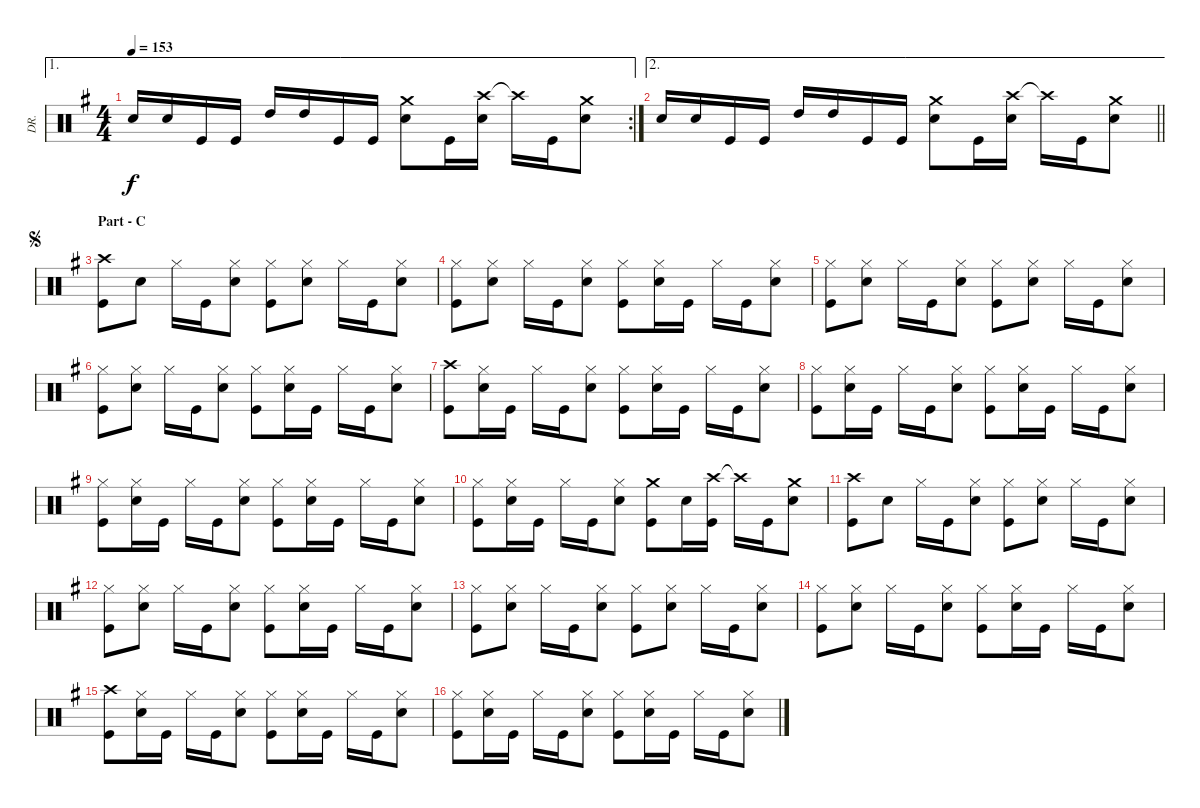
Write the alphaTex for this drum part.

\track ("DR." "DR.") {instrument percussion}
\staff {score}
\articulation defaults
\ae 1
\rc 2
\ts (4 4)
\tempo 153
\clef neutral
\ks g "Snare (hit) 2".16{dy f} "Snare (hit) 2".16 "Kick (hit)".16 "Kick (hit)".16 "High Tom (hit)".16 "High Tom (hit)".16 "Kick (hit)".16 "Kick (hit)".16
("Crash medium (hit)" "Snare (hit) 2").8 "Kick (hit)".16 ("Crash high (hit)" "Snare (hit) 2").16 "Crash high (hit)"{t}.16 "Kick (hit)".16 ("Crash medium (hit)" "Snare (hit) 2").8 |
\ae 2
\barLineRight lightlight "Snare (hit) 2".16 "Snare (hit) 2".16 "Kick (hit)".16 "Kick (hit)".16 "High Tom (hit)".16 "High Tom (hit)".16 "Kick (hit)".16 "Kick (hit)".16
("Crash medium (hit)" "Snare (hit) 2").8 "Kick (hit)".16 ("Crash high (hit)" "Snare (hit) 2").16 "Crash high (hit)"{t}.16 "Kick (hit)".16 ("Crash medium (hit)" "Snare (hit) 2").8 |
\section ("" "Part - C")
\jump segno
("Crash high (hit)" "Kick (hit)").8 "Snare (hit) 2".8 "Hi-Hat (closed)".16 "Kick (hit)".16 ("Hi-Hat (closed)" "Snare (hit) 2").8 ("Hi-Hat (closed)" "Kick (hit)").8 ("Hi-Hat (closed)" "Snare (hit) 2").8 "Hi-Hat (closed)".16 "Kick (hit)".16 ("Hi-Hat (closed)" "Snare (hit) 2").8 |
("Hi-Hat (closed)" "Kick (hit)").8 ("Hi-Hat (closed)" "Snare (hit) 2").8 "Hi-Hat (closed)".16 "Kick (hit)".16 ("Hi-Hat (closed)" "Snare (hit) 2").8 ("Hi-Hat (closed)" "Kick (hit)").8 ("Hi-Hat (closed)" "Snare (hit) 2").16 "Kick (hit)".16 "Hi-Hat (closed)".16 "Kick (hit)".16 ("Hi-Hat (closed)" "Snare (hit) 2").8 |
("Hi-Hat (closed)" "Kick (hit)").8 ("Hi-Hat (closed)" "Snare (hit) 2").8 "Hi-Hat (closed)".16 "Kick (hit)".16 ("Hi-Hat (closed)" "Snare (hit) 2").8 ("Hi-Hat (closed)" "Kick (hit)").8 ("Hi-Hat (closed)" "Snare (hit) 2").8 "Hi-Hat (closed)".16 "Kick (hit)".16 ("Hi-Hat (closed)" "Snare (hit) 2").8 |
("Hi-Hat (closed)" "Kick (hit)").8 ("Hi-Hat (closed)" "Snare (hit) 2").8 "Hi-Hat (closed)".16 "Kick (hit)".16 ("Hi-Hat (closed)" "Snare (hit) 2").8 ("Hi-Hat (closed)" "Kick (hit)").8 ("Hi-Hat (closed)" "Snare (hit) 2").16 "Kick (hit)".16 "Hi-Hat (closed)".16 "Kick (hit)".16 ("Hi-Hat (closed)" "Snare (hit) 2").8 |
("Crash high (hit)" "Kick (hit)").8 ("Hi-Hat (closed)" "Snare (hit) 2").16 "Kick (hit)".16 "Hi-Hat (closed)".16 "Kick (hit)".16 ("Hi-Hat (closed)" "Snare (hit) 2").8 ("Hi-Hat (closed)" "Kick (hit)").8 ("Hi-Hat (closed)" "Snare (hit) 2").16 "Kick (hit)".16 "Hi-Hat (closed)".16 "Kick (hit)".16 ("Hi-Hat (closed)" "Snare (hit) 2").8 |
("Hi-Hat (closed)" "Kick (hit)").8 ("Hi-Hat (closed)" "Snare (hit) 2").16 "Kick (hit)".16 "Hi-Hat (closed)".16 "Kick (hit)".16 ("Hi-Hat (closed)" "Snare (hit) 2").8 ("Hi-Hat (closed)" "Kick (hit)").8 ("Hi-Hat (closed)" "Snare (hit) 2").16 "Kick (hit)".16 "Hi-Hat (closed)".16 "Kick (hit)".16 ("Hi-Hat (closed)" "Snare (hit) 2").8 |
("Hi-Hat (closed)" "Kick (hit)").8 ("Hi-Hat (closed)" "Snare (hit) 2").16 "Kick (hit)".16 "Hi-Hat (closed)".16 "Kick (hit)".16 ("Hi-Hat (closed)" "Snare (hit) 2").8 ("Hi-Hat (closed)" "Kick (hit)").8 ("Hi-Hat (closed)" "Snare (hit) 2").16 "Kick (hit)".16 "Hi-Hat (closed)".16 "Kick (hit)".16 ("Hi-Hat (closed)" "Snare (hit) 2").8 |
("Hi-Hat (closed)" "Kick (hit)").8 ("Hi-Hat (closed)" "Snare (hit) 2").16 "Kick (hit)".16 "Hi-Hat (closed)".16 "Kick (hit)".16 ("Hi-Hat (closed)" "Snare (hit) 2").8 ("Crash medium (hit)" "Kick (hit)").8 "Snare (hit) 2".16 ("Crash high (hit)" "Kick (hit)").16 "Crash high (hit)"{t}.16 "Kick (hit)".16 ("Crash medium (hit)" "Snare (hit) 2").8 |
("Crash high (hit)" "Kick (hit)").8 "Snare (hit) 2".8 "Hi-Hat (closed)".16 "Kick (hit)".16 ("Hi-Hat (closed)" "Snare (hit) 2").8 ("Hi-Hat (closed)" "Kick (hit)").8 ("Hi-Hat (closed)" "Snare (hit) 2").8 "Hi-Hat (closed)".16 "Kick (hit)".16 ("Hi-Hat (closed)" "Snare (hit) 2").8 |
("Hi-Hat (closed)" "Kick (hit)").8 ("Hi-Hat (closed)" "Snare (hit) 2").8 "Hi-Hat (closed)".16 "Kick (hit)".16 ("Hi-Hat (closed)" "Snare (hit) 2").8 ("Hi-Hat (closed)" "Kick (hit)").8 ("Hi-Hat (closed)" "Snare (hit) 2").16 "Kick (hit)".16 "Hi-Hat (closed)".16 "Kick (hit)".16 ("Hi-Hat (closed)" "Snare (hit) 2").8 |
("Hi-Hat (closed)" "Kick (hit)").8 ("Hi-Hat (closed)" "Snare (hit) 2").8 "Hi-Hat (closed)".16 "Kick (hit)".16 ("Hi-Hat (closed)" "Snare (hit) 2").8 ("Hi-Hat (closed)" "Kick (hit)").8 ("Hi-Hat (closed)" "Snare (hit) 2").8 "Hi-Hat (closed)".16 "Kick (hit)".16 ("Hi-Hat (closed)" "Snare (hit) 2").8 |
("Hi-Hat (closed)" "Kick (hit)").8 ("Hi-Hat (closed)" "Snare (hit) 2").8 "Hi-Hat (closed)".16 "Kick (hit)".16 ("Hi-Hat (closed)" "Snare (hit) 2").8 ("Hi-Hat (closed)" "Kick (hit)").8 ("Hi-Hat (closed)" "Snare (hit) 2").16 "Kick (hit)".16 "Hi-Hat (closed)".16 "Kick (hit)".16 ("Hi-Hat (closed)" "Snare (hit) 2").8 |
("Crash high (hit)" "Kick (hit)").8 ("Hi-Hat (closed)" "Snare (hit) 2").16 "Kick (hit)".16 "Hi-Hat (closed)".16 "Kick (hit)".16 ("Hi-Hat (closed)" "Snare (hit) 2").8 ("Hi-Hat (closed)" "Kick (hit)").8 ("Hi-Hat (closed)" "Snare (hit) 2").16 "Kick (hit)".16 "Hi-Hat (closed)".16 "Kick (hit)".16 ("Hi-Hat (closed)" "Snare (hit) 2").8 |
("Hi-Hat (closed)" "Kick (hit)").8 ("Hi-Hat (closed)" "Snare (hit) 2").16 "Kick (hit)".16 "Hi-Hat (closed)".16 "Kick (hit)".16 ("Hi-Hat (closed)" "Snare (hit) 2").8 ("Hi-Hat (closed)" "Kick (hit)").8 ("Hi-Hat (closed)" "Snare (hit) 2").16 "Kick (hit)".16 "Hi-Hat (closed)".16 "Kick (hit)".16 ("Hi-Hat (closed)" "Snare (hit) 2").8
